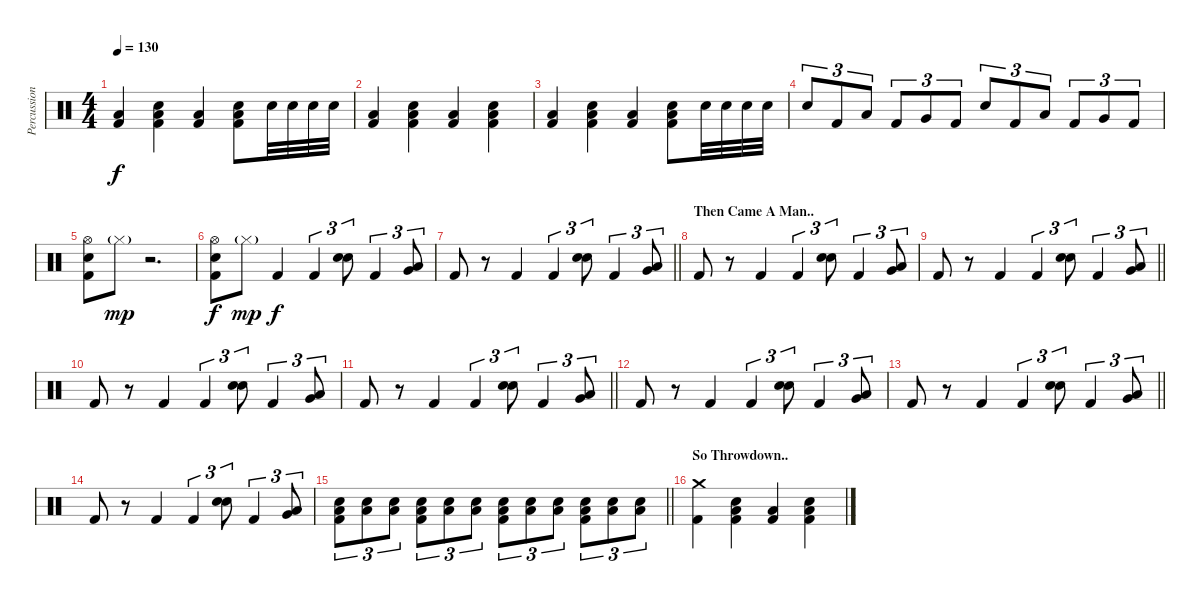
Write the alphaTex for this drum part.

\track ("Percussion" "Percussion") {instrument percussion}
\staff {score}
\articulation defaults
\ts (4 4)
\tempo 130
\clef neutral
\ks c
("Low Floor Tom (hit)" "Kick (hit) 2").4{dy f} ("Low Floor Tom (hit)" "Electric Snare (hit)" "Kick (hit) 2").4 ("Low Floor Tom (hit)" "Kick (hit) 2").4 ("Low Floor Tom (hit)" "Electric Snare (hit)" "Kick (hit) 2").8 "Electric Snare (hit)".32 "Electric Snare (hit)".32 "Electric Snare (hit)".32 "Electric Snare (hit)".32 |
("Low Floor Tom (hit)" "Kick (hit) 2").4 ("Low Floor Tom (hit)" "Electric Snare (hit)" "Kick (hit) 2").4 ("Low Floor Tom (hit)" "Kick (hit) 2").4 ("Low Floor Tom (hit)" "Electric Snare (hit)" "Kick (hit) 2").4 |
("Low Floor Tom (hit)" "Kick (hit) 2").4 ("Low Floor Tom (hit)" "Electric Snare (hit)" "Kick (hit) 2").4 ("Low Floor Tom (hit)" "Kick (hit) 2").4 ("Low Floor Tom (hit)" "Electric Snare (hit)" "Kick (hit) 2").8 "Electric Snare (hit)".32 "Electric Snare (hit)".32 "Electric Snare (hit)".32 "Electric Snare (hit)".32 |
"Electric Snare (hit)".8{tu (3 2)} "Kick (hit) 2".8{tu (3 2)} "Low Tom (hit)".8{tu (3 2)} "Kick (hit) 2".8{tu (3 2)} "Very Low Tom (hit)".8{tu (3 2)} "Kick (hit) 2".8{tu (3 2)} "Electric Snare (hit)".8{tu (3 2)} "Kick (hit) 2".8{tu (3 2)} "Low Tom (hit)".8{tu (3 2)} "Kick (hit) 2".8{tu (3 2)} "Very Low Tom (hit)".8{tu (3 2)} "Kick (hit) 2".8{tu (3 2)} |
("Electric Snare (hit)" "Hi-Hat (open)" "Kick (hit) 2").8 "Hi-Hat (closed)"{g}.8{dy mp} r.2{d} |
("Electric Snare (hit)" "Hi-Hat (open)" "Kick (hit) 2").8{dy f} "Hi-Hat (closed)"{g}.8{dy mp} "Kick (hit) 2".4{dy f} "Kick (hit) 2".4{tu (3 2)} ("Snare (hit) 2" "Electric Snare (hit)").8{tu (3 2)} "Kick (hit) 2".4{tu (3 2)} ("Low Floor Tom (hit)" "Very Low Tom (hit)").8{tu (3 2)} |
\barLineRight lightlight "Kick (hit) 2".8
r.8 "Kick (hit) 2".4 "Kick (hit) 2".4{tu (3 2)} ("Electric Snare (hit)" "Snare (hit) 2").8{tu (3 2)} "Kick (hit) 2".4{tu (3 2)} ("Low Floor Tom (hit)" "Very Low Tom (hit)").8{tu (3 2)} |
\section ("" "Then Came A Man..")
"Kick (hit) 2".8 r.8 "Kick (hit) 2".4 "Kick (hit) 2".4{tu (3 2)} ("Electric Snare (hit)" "Snare (hit) 2").8{tu (3 2)} "Kick (hit) 2".4{tu (3 2)} ("Low Floor Tom (hit)" "Very Low Tom (hit)").8{tu (3 2)} |
\barLineRight lightlight "Kick (hit) 2".8
r.8 "Kick (hit) 2".4 "Kick (hit) 2".4{tu (3 2)} ("Electric Snare (hit)" "Snare (hit) 2").8{tu (3 2)} "Kick (hit) 2".4{tu (3 2)} ("Low Floor Tom (hit)" "Very Low Tom (hit)").8{tu (3 2)} |
"Kick (hit) 2".8 r.8 "Kick (hit) 2".4 "Kick (hit) 2".4{tu (3 2)} ("Electric Snare (hit)" "Snare (hit) 2").8{tu (3 2)} "Kick (hit) 2".4{tu (3 2)} ("Low Floor Tom (hit)" "Very Low Tom (hit)").8{tu (3 2)} |
\barLineRight lightlight "Kick (hit) 2".8
r.8 "Kick (hit) 2".4 "Kick (hit) 2".4{tu (3 2)} ("Electric Snare (hit)" "Snare (hit) 2").8{tu (3 2)} "Kick (hit) 2".4{tu (3 2)} ("Low Floor Tom (hit)" "Very Low Tom (hit)").8{tu (3 2)} |
"Kick (hit) 2".8 r.8 "Kick (hit) 2".4 "Kick (hit) 2".4{tu (3 2)} ("Electric Snare (hit)" "Snare (hit) 2").8{tu (3 2)} "Kick (hit) 2".4{tu (3 2)} ("Low Floor Tom (hit)" "Very Low Tom (hit)").8{tu (3 2)} |
\barLineRight lightlight "Kick (hit) 2".8
r.8 "Kick (hit) 2".4 "Kick (hit) 2".4{tu (3 2)} ("Electric Snare (hit)" "Snare (hit) 2").8{tu (3 2)} "Kick (hit) 2".4{tu (3 2)} ("Low Floor Tom (hit)" "Very Low Tom (hit)").8{tu (3 2)} |
"Kick (hit) 2".8 r.8 "Kick (hit) 2".4 "Kick (hit) 2".4{tu (3 2)} ("Electric Snare (hit)" "Snare (hit) 2").8{tu (3 2)} "Kick (hit) 2".4{tu (3 2)} ("Low Floor Tom (hit)" "Very Low Tom (hit)").8{tu (3 2)} |
\barLineRight lightlight
("Electric Snare (hit)" "Low Floor Tom (hit)" "Kick (hit) 2").8{tu (3 2)} ("Electric Snare (hit)" "Low Floor Tom (hit)").8{tu (3 2)} ("Electric Snare (hit)" "Low Floor Tom (hit)").8{tu (3 2)} ("Electric Snare (hit)" "Low Floor Tom (hit)" "Kick (hit) 2").8{tu (3 2)} ("Electric Snare (hit)" "Low Floor Tom (hit)").8{tu (3 2)} ("Electric Snare (hit)" "Low Floor Tom (hit)").8{tu (3 2)} ("Electric Snare (hit)" "Low Floor Tom (hit)" "Kick (hit) 2").8{tu (3 2)} ("Electric Snare (hit)" "Low Floor Tom (hit)").8{tu (3 2)} ("Electric Snare (hit)" "Low Floor Tom (hit)").8{tu (3 2)} ("Electric Snare (hit)" "Low Floor Tom (hit)" "Kick (hit) 2").8{tu (3 2)} ("Electric Snare (hit)" "Low Floor Tom (hit)").8{tu (3 2)} ("Electric Snare (hit)" "Low Floor Tom (hit)").8{tu (3 2)} |
\section ("" "So Throwdown..")
("Crash medium (hit)" "Kick (hit) 2").4 ("Low Floor Tom (hit)" "Electric Snare (hit)" "Kick (hit) 2").4 ("Low Floor Tom (hit)" "Kick (hit) 2").4 ("Low Floor Tom (hit)" "Electric Snare (hit)" "Kick (hit) 2").4
